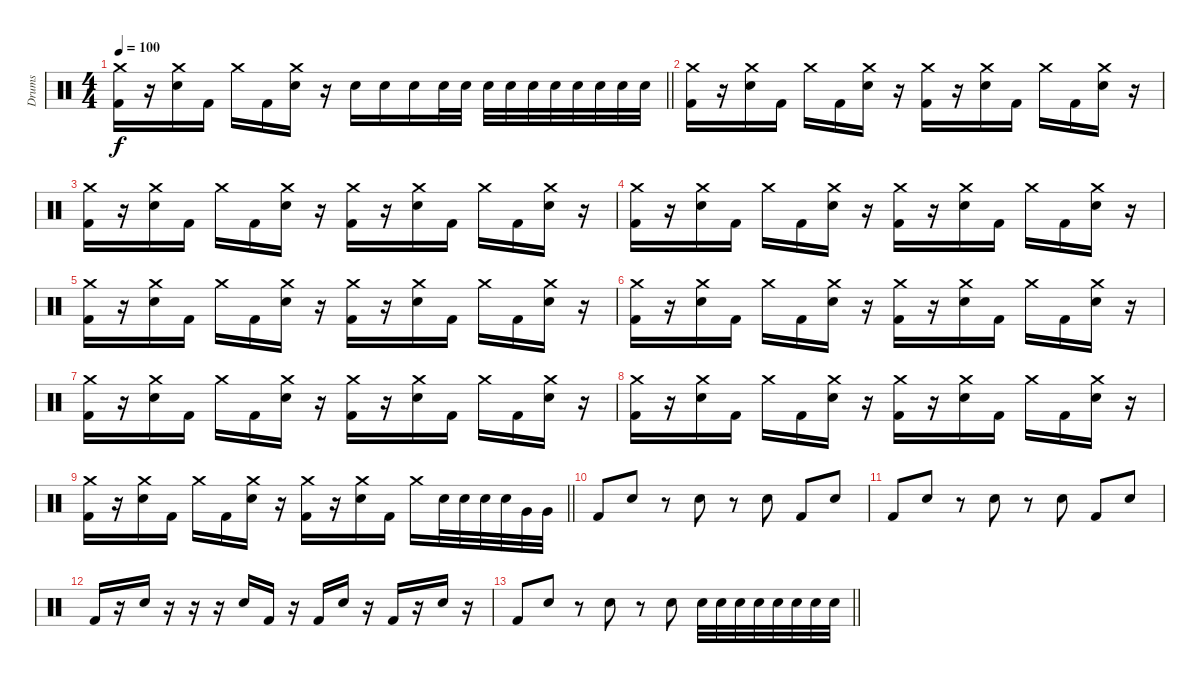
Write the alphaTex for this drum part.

\track ("Drums" "Drums") {instrument percussion}
\staff {score}
\articulation defaults
\ts (4 4)
\tempo 100
\clef neutral
\barLineRight lightlight
\ks c
("Crash medium (hit)" "Kick (hit) 2").16{dy f} r.16 ("Crash medium (hit)" "Snare (hit) 2").16 "Kick (hit) 2".16 "Crash medium (hit)".16 "Kick (hit) 2".16 ("Crash medium (hit)" "Snare (hit) 2").16 r.16 "Snare (hit) 2".16 "Snare (hit) 2".16 "Snare (hit) 2".16 "Snare (hit) 2".32 "Snare (hit) 2".32 "Snare (hit) 2".32 "Snare (hit) 2".32 "Snare (hit) 2".32 "Snare (hit) 2".32 "Snare (hit) 2".32 "Snare (hit) 2".32 "Snare (hit) 2".32 "Snare (hit) 2".32 |
\section ("" "")
("Crash medium (hit)" "Kick (hit) 2").16 r.16 ("Crash medium (hit)" "Snare (hit) 2").16 "Kick (hit) 2".16 "Crash medium (hit)".16 "Kick (hit) 2".16 ("Crash medium (hit)" "Snare (hit) 2").16 r.16 ("Crash medium (hit)" "Kick (hit) 2").16 r.16 ("Crash medium (hit)" "Snare (hit) 2").16 "Kick (hit) 2".16 "Crash medium (hit)".16 "Kick (hit) 2".16 ("Crash medium (hit)" "Snare (hit) 2").16 r.16 |
("Crash medium (hit)" "Kick (hit) 2").16 r.16 ("Crash medium (hit)" "Snare (hit) 2").16 "Kick (hit) 2".16 "Crash medium (hit)".16 "Kick (hit) 2".16 ("Crash medium (hit)" "Snare (hit) 2").16 r.16 ("Crash medium (hit)" "Kick (hit) 2").16 r.16 ("Crash medium (hit)" "Snare (hit) 2").16 "Kick (hit) 2".16 "Crash medium (hit)".16 "Kick (hit) 2".16 ("Crash medium (hit)" "Snare (hit) 2").16 r.16 |
("Crash medium (hit)" "Kick (hit) 2").16 r.16 ("Crash medium (hit)" "Snare (hit) 2").16 "Kick (hit) 2".16 "Crash medium (hit)".16 "Kick (hit) 2".16 ("Crash medium (hit)" "Snare (hit) 2").16 r.16 ("Crash medium (hit)" "Kick (hit) 2").16 r.16 ("Crash medium (hit)" "Snare (hit) 2").16 "Kick (hit) 2".16 "Crash medium (hit)".16 "Kick (hit) 2".16 ("Crash medium (hit)" "Snare (hit) 2").16 r.16 |
("Crash medium (hit)" "Kick (hit) 2").16 r.16 ("Crash medium (hit)" "Snare (hit) 2").16 "Kick (hit) 2".16 "Crash medium (hit)".16 "Kick (hit) 2".16 ("Crash medium (hit)" "Snare (hit) 2").16 r.16 ("Crash medium (hit)" "Kick (hit) 2").16 r.16 ("Crash medium (hit)" "Snare (hit) 2").16 "Kick (hit) 2".16 "Crash medium (hit)".16 "Kick (hit) 2".16 ("Crash medium (hit)" "Snare (hit) 2").16 r.16 |
("Crash medium (hit)" "Kick (hit) 2").16 r.16 ("Crash medium (hit)" "Snare (hit) 2").16 "Kick (hit) 2".16 "Crash medium (hit)".16 "Kick (hit) 2".16 ("Crash medium (hit)" "Snare (hit) 2").16 r.16 ("Crash medium (hit)" "Kick (hit) 2").16 r.16 ("Crash medium (hit)" "Snare (hit) 2").16 "Kick (hit) 2".16 "Crash medium (hit)".16 "Kick (hit) 2".16 ("Crash medium (hit)" "Snare (hit) 2").16 r.16 |
("Crash medium (hit)" "Kick (hit) 2").16 r.16 ("Crash medium (hit)" "Snare (hit) 2").16 "Kick (hit) 2".16 "Crash medium (hit)".16 "Kick (hit) 2".16 ("Crash medium (hit)" "Snare (hit) 2").16 r.16 ("Crash medium (hit)" "Kick (hit) 2").16 r.16 ("Crash medium (hit)" "Snare (hit) 2").16 "Kick (hit) 2".16 "Crash medium (hit)".16 "Kick (hit) 2".16 ("Crash medium (hit)" "Snare (hit) 2").16 r.16 |
("Crash medium (hit)" "Kick (hit) 2").16 r.16 ("Crash medium (hit)" "Snare (hit) 2").16 "Kick (hit) 2".16 "Crash medium (hit)".16 "Kick (hit) 2".16 ("Crash medium (hit)" "Snare (hit) 2").16 r.16 ("Crash medium (hit)" "Kick (hit) 2").16 r.16 ("Crash medium (hit)" "Snare (hit) 2").16 "Kick (hit) 2".16 "Crash medium (hit)".16 "Kick (hit) 2".16 ("Crash medium (hit)" "Snare (hit) 2").16 r.16 |
\barLineRight lightlight
("Crash medium (hit)" "Kick (hit) 2").16 r.16 ("Crash medium (hit)" "Snare (hit) 2").16 "Kick (hit) 2".16 "Crash medium (hit)".16 "Kick (hit) 2".16 ("Crash medium (hit)" "Snare (hit) 2").16 r.16 ("Crash medium (hit)" "Kick (hit) 2").16 r.16 ("Crash medium (hit)" "Snare (hit) 2").16 "Kick (hit) 2".16 "Crash medium (hit)".16 "Snare (hit) 2".32 "Snare (hit) 2".32 "Snare (hit) 2".32 "Snare (hit) 2".32 "Very Low Tom (hit)".32 "Very Low Tom (hit)".32 |
\section ("" "")
"Kick (hit) 2".8 "Snare (hit) 2".8 r.8 "Snare (hit) 2".8 r.8 "Snare (hit) 2".8 "Kick (hit) 2".8 "Snare (hit) 2".8 |
"Kick (hit) 2".8 "Snare (hit) 2".8 r.8 "Snare (hit) 2".8 r.8 "Snare (hit) 2".8 "Kick (hit) 2".8 "Snare (hit) 2".8 |
"Kick (hit) 2".16 r.16 "Snare (hit) 2".16 r.16 r.16 r.16 "Snare (hit) 2".16 "Kick (hit) 2".16 r.16 "Kick (hit) 2".16 "Snare (hit) 2".16 r.16 "Kick (hit) 2".16 r.16 "Snare (hit) 2".16 r.16 |
\barLineRight lightlight "Kick (hit) 2".8 "Snare (hit) 2".8
r.8 "Snare (hit) 2".8 r.8 "Snare (hit) 2".8 "Snare (hit) 2".32 "Snare (hit) 2".32 "Snare (hit) 2".32 "Snare (hit) 2".32 "Snare (hit) 2".32 "Snare (hit) 2".32 "Snare (hit) 2".32 "Snare (hit) 2".32
